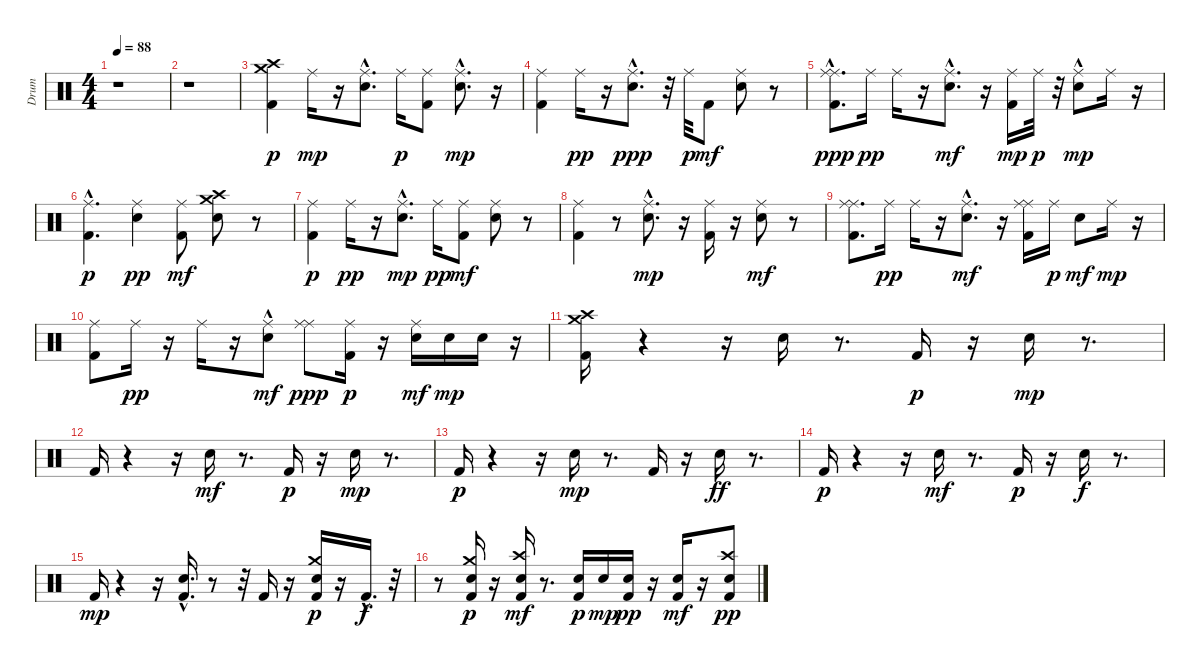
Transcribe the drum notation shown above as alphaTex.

\track ("Drum" "Drum") {instrument percussion}
\staff {score}
\articulation defaults
\ts (4 4)
\tempo 88
\clef neutral
\ks c
r.1{dy p} |
r.1 |
("Kick (hit) 2" "Crash high (hit)" "Crash medium (hit)").4 "Ride (middle)".16{dy mp} r.16 ("Electric Snare (hit)"{hac} "Ride (middle)").8{d} "Ride (middle)".16{dy p} ("Kick (hit) 2" "Ride (middle)").8 ("Electric Snare (hit)"{hac} "Ride (middle)").8{d dy mp} r.16 |
("Kick (hit) 2" "Ride (middle)").4 "Ride (middle)".16{dy pp} r.16 ("Electric Snare (hit)"{hac} "Ride (middle)").8{d dy ppp} r.32 "Ride (middle)".32{dy p} "Kick (hit) 2".8{dy mf} ("Ride (middle)" "Electric Snare (hit)").8 r.8 |
("Kick (hit) 2" "Ride (middle)"{hac} "Ride (middle)").8{d dy ppp} "Ride (middle)".16{dy pp} "Ride (middle)".16 r.16 ("Ride (middle)" "Electric Snare (hit)"{hac}).8{d dy mf} r.16 ("Ride (middle)" "Kick (hit) 2").16{dy mp} "Ride (middle)".32{dy p} r.32 ("Ride (middle)" "Electric Snare (hit)"{hac}).8{dy mp} "Ride (middle)".16 r.16 |
("Kick (hit) 2"{hac} "Ride (middle)").4{d dy p} ("Electric Snare (hit)" "Ride (middle)").4{dy pp} ("Ride (middle)" "Kick (hit) 2").8{dy mf} ("Electric Snare (hit)" "Crash medium (hit)" "Crash high (hit)").8 r.8 |
("Kick (hit) 2" "Ride (middle)").4{dy p} "Ride (middle)".16{dy pp} r.16 ("Ride (middle)" "Electric Snare (hit)"{hac}).8{d dy mp} "Ride (middle)".16{dy pp} ("Ride (middle)" "Kick (hit) 2").8{dy mf} ("Ride (middle)" "Electric Snare (hit)").8 r.8 |
("Ride (middle)" "Kick (hit) 2").4 r.8 ("Electric Snare (hit)"{hac} "Ride (middle)").8{d dy mp} r.16 ("Ride (middle)" "Kick (hit) 2").16 r.16 ("Ride (middle)" "Electric Snare (hit)").8{dy mf} r.8 |
("Ride (middle)" "Ride (middle)" "Kick (hit) 2").8{d} "Ride (middle)".16{dy pp} "Ride (middle)".16 r.16 ("Ride (middle)" "Electric Snare (hit)"{hac}).8{d dy mf} r.16 ("Ride (middle)" "Ride (middle)" "Kick (hit) 2").16 "Ride (middle)".16{dy p} "Electric Snare (hit)".8{dy mf} "Ride (middle)".16{dy mp} r.16 |
("Kick (hit) 2" "Ride (middle)").8 "Ride (middle)".16{dy pp} r.16 "Ride (middle)".16 r.16 ("Ride (middle)" "Electric Snare (hit)"{hac}).8{dy mf} ("Ride (middle)" "Ride (middle)").8{dy ppp} ("Kick (hit) 2" "Ride (middle)").16{dy p} r.16 ("Ride (middle)" "Electric Snare (hit)").16{dy mf} "Electric Snare (hit)".16{dy mp} "Electric Snare (hit)".16 r.16 |
("Kick (hit) 2" "Crash medium (hit)" "Crash high (hit)").16 r.4 r.16 "Electric Snare (hit)".16 r.8{d} "Kick (hit) 2".16{dy p} r.16 "Electric Snare (hit)".16{dy mp} r.8{d} |
"Kick (hit) 2".16 r.4 r.16 "Electric Snare (hit)".16{dy mf} r.8{d} "Kick (hit) 2".16{dy p} r.16 "Electric Snare (hit)".16{dy mp} r.8{d} |
"Kick (hit) 2".16{dy p} r.4 r.16 "Electric Snare (hit)".16{dy mp} r.8{d} "Kick (hit) 2".16 r.16 "Electric Snare (hit)".16{dy ff} r.8{d} |
"Kick (hit) 2".16{dy p} r.4 r.16 "Electric Snare (hit)".16{dy mf} r.8{d} "Kick (hit) 2".16{dy p} r.16 "Electric Snare (hit)".16{dy f} r.8{d} |
"Kick (hit) 2".16{dy mp} r.4 r.16 ("Electric Snare (hit)"{hac} "Kick (hit) 2").16{d} r.8 r.32 "Kick (hit) 2".16 r.16 ("Electric Snare (hit)" "Kick (hit) 2" "Crash medium (hit)").16{dy p} r.16 "Kick (hit) 2"{hac}.16{d dy f} r.32 |
r.8 ("Kick (hit) 2" "Electric Snare (hit)" "Crash medium (hit)").16{dy p} r.16 ("Kick (hit) 2" "Electric Snare (hit)" "Crash high (hit)").16{dy mf} r.8{d} ("Electric Snare (hit)" "Kick (hit) 2").16{dy p} "Electric Snare (hit)".16{dy mp} ("Kick (hit) 2" "Electric Snare (hit)").16{dy pp} r.16 ("Electric Snare (hit)" "Kick (hit) 2").16{dy mf} r.16 ("Electric Snare (hit)" "Kick (hit) 2" "Crash high (hit)").8{dy pp}
